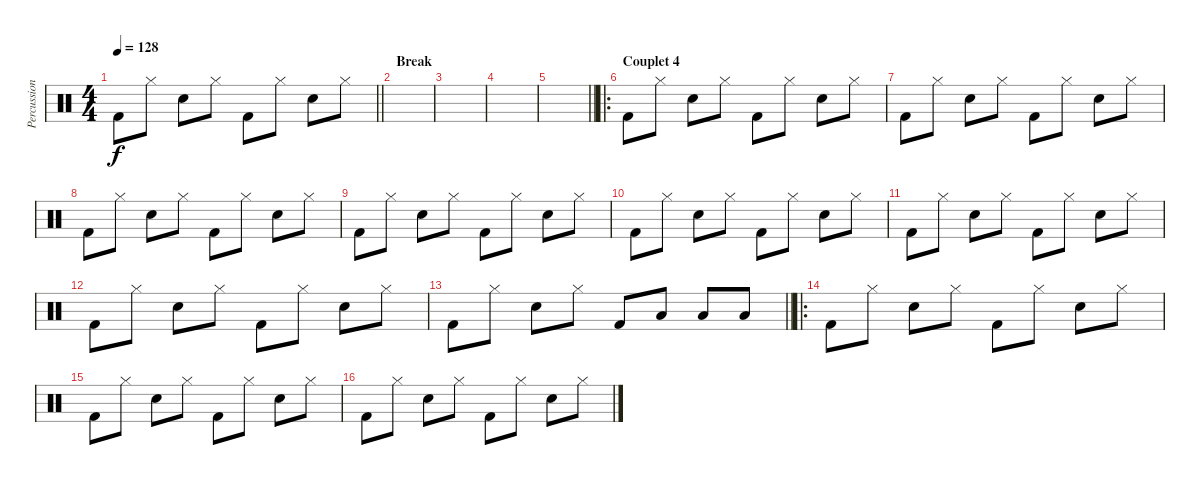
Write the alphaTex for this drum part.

\track ("Percussions" "Percussion") {instrument percussion}
\staff {score}
\articulation defaults
\ts (4 4)
\tempo 128
\clef neutral
\barLineRight lightlight
\ks c "Kick (hit) 2".8{dy f} "Hi-Hat (closed)".8 "Electric Snare (hit)".8 "Hi-Hat (closed)".8 "Kick (hit) 2".8 "Hi-Hat (closed)".8 "Electric Snare (hit)".8 "Hi-Hat (closed)".8
|
\section ("" "Break")
|
|
|
\barLineRight lightlight
|
\ro
\section ("" "Couplet 4")
"Kick (hit) 2".8 "Hi-Hat (closed)".8 "Electric Snare (hit)".8 "Hi-Hat (closed)".8 "Kick (hit) 2".8 "Hi-Hat (closed)".8 "Electric Snare (hit)".8 "Hi-Hat (closed)".8 |
"Kick (hit) 2".8 "Hi-Hat (closed)".8 "Electric Snare (hit)".8 "Hi-Hat (closed)".8 "Kick (hit) 2".8 "Hi-Hat (closed)".8 "Electric Snare (hit)".8 "Hi-Hat (closed)".8 |
"Kick (hit) 2".8 "Hi-Hat (closed)".8 "Electric Snare (hit)".8 "Hi-Hat (closed)".8 "Kick (hit) 2".8 "Hi-Hat (closed)".8 "Electric Snare (hit)".8 "Hi-Hat (closed)".8 |
"Kick (hit) 2".8 "Hi-Hat (closed)".8 "Electric Snare (hit)".8 "Hi-Hat (closed)".8 "Kick (hit) 2".8 "Hi-Hat (closed)".8 "Electric Snare (hit)".8 "Hi-Hat (closed)".8 |
"Kick (hit) 2".8 "Hi-Hat (closed)".8 "Electric Snare (hit)".8 "Hi-Hat (closed)".8 "Kick (hit) 2".8 "Hi-Hat (closed)".8 "Electric Snare (hit)".8 "Hi-Hat (closed)".8 |
"Kick (hit) 2".8 "Hi-Hat (closed)".8 "Electric Snare (hit)".8 "Hi-Hat (closed)".8 "Kick (hit) 2".8 "Hi-Hat (closed)".8 "Electric Snare (hit)".8 "Hi-Hat (closed)".8 |
"Kick (hit) 2".8 "Hi-Hat (closed)".8 "Electric Snare (hit)".8 "Hi-Hat (closed)".8 "Kick (hit) 2".8 "Hi-Hat (closed)".8 "Electric Snare (hit)".8 "Hi-Hat (closed)".8 |
\barLineRight lightlight "Kick (hit) 2".8 "Hi-Hat (closed)".8 "Electric Snare (hit)".8 "Hi-Hat (closed)".8 "Kick (hit) 2".8 "Low Tom (hit)".8 "Low Tom (hit)".8 "Low Floor Tom (hit)".8
|
\ro "Kick (hit) 2".8 "Hi-Hat (closed)".8 "Electric Snare (hit)".8 "Hi-Hat (closed)".8 "Kick (hit) 2".8 "Hi-Hat (closed)".8 "Electric Snare (hit)".8 "Hi-Hat (closed)".8
|
"Kick (hit) 2".8 "Hi-Hat (closed)".8 "Electric Snare (hit)".8 "Hi-Hat (closed)".8 "Kick (hit) 2".8 "Hi-Hat (closed)".8 "Electric Snare (hit)".8 "Hi-Hat (closed)".8 |
"Kick (hit) 2".8 "Hi-Hat (closed)".8 "Electric Snare (hit)".8 "Hi-Hat (closed)".8 "Kick (hit) 2".8 "Hi-Hat (closed)".8 "Electric Snare (hit)".8 "Hi-Hat (closed)".8
